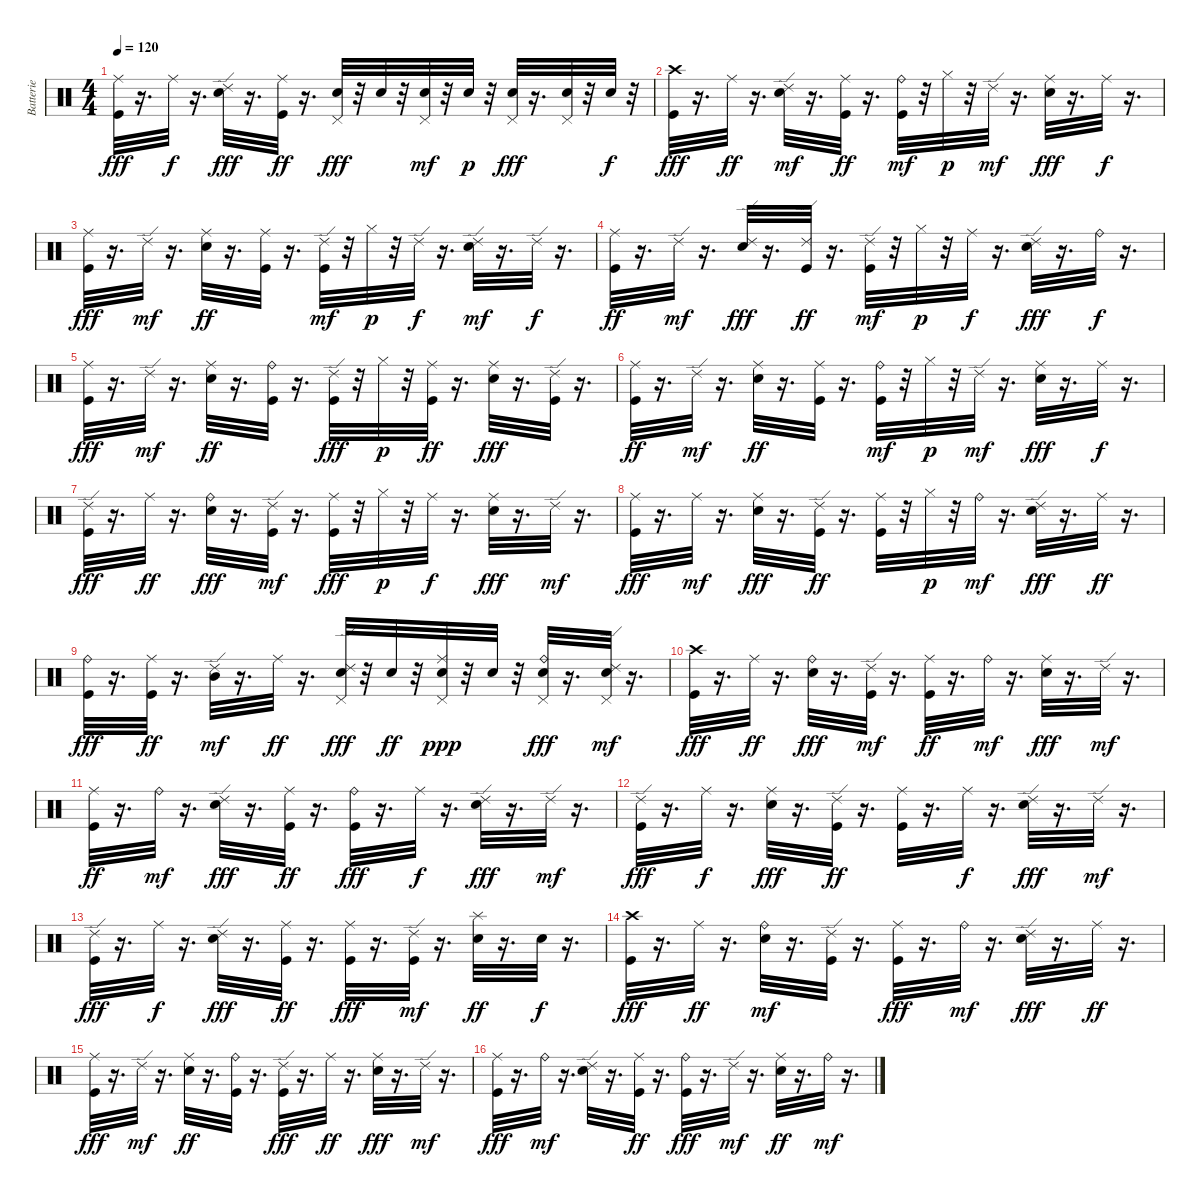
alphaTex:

\track ("Batterie" "Batterie") {instrument percussion}
\staff {score}
\articulation defaults
\ts (4 4)
\tempo 120
\clef neutral
\ks c
("Ride (middle)" "Kick (hit)").32{dy fff} r.16{d} "Ride (middle)".32{dy f} r.16{d} ("Ride (edge) 2" "Electric Snare (hit)").32{dy fff} r.16{d} ("Ride (middle)" "Kick (hit)").32{dy ff} r.16{d} ("Pedal Hi-Hat (hit)" "Electric Snare (hit)").32{dy fff} r.32 "Electric Snare (hit)".32 r.32 ("Electric Snare (hit)" "Pedal Hi-Hat (hit)").32{dy mf} r.32 "Electric Snare (hit)".32{dy p} r.32 ("Pedal Hi-Hat (hit)" "Electric Snare (hit)").32{dy fff} r.16{d} ("Pedal Hi-Hat (hit)" "Electric Snare (hit)").32 r.32 "Electric Snare (hit)".32{dy f} r.32 |
("Crash high (hit)" "Kick (hit)").32{dy fff} r.16{d} "Ride (middle)".32{dy ff} r.16{d} ("Electric Snare (hit)" "Ride (edge) 2").32{dy mf} r.16{d} ("Ride (middle)" "Kick (hit)").32{dy ff} r.16{d} ("Kick (hit)" "Ride (bell)").32{dy mf} r.32 "Hi-Hat (closed)".32{dy p} r.32 "Ride (edge) 2".32{dy mf} r.16{d} ("Ride (middle)" "Electric Snare (hit)").32{dy fff} r.16{d} "Ride (middle)".32{dy f} r.16{d} |
("Ride (middle)" "Kick (hit)").32{dy fff} r.16{d} "Ride (edge) 2".32{dy mf} r.16{d} ("Electric Snare (hit)" "Ride (middle)").32{dy ff} r.16{d} ("Ride (middle)" "Kick (hit)").32 r.16{d} ("Kick (hit)" "Ride (edge) 2").32{dy mf} r.32 "Hi-Hat (closed)".32{dy p} r.32 "Ride (edge) 2".32{dy f} r.16{d} ("Electric Snare (hit)" "Ride (edge) 2").32{dy mf} r.16{d} "Ride (edge) 2".32{dy f} r.16{d} |
("Kick (hit)" "Ride (middle)").32{dy ff} r.16{d} "Ride (edge) 2".32{dy mf} r.16{d} ("Ride (edge) 2" "Electric Snare (hit)").32{dy fff} r.16{d} ("Kick (hit)" "Ride (edge) 2").32{dy ff} r.16{d} ("Kick (hit)" "Ride (edge) 2").32{dy mf} r.32 "Hi-Hat (closed)".32{dy p} r.32 "Ride (middle)".32{dy f} r.16{d} ("Ride (edge) 2" "Electric Snare (hit)").32{dy fff} r.16{d} "Ride (bell)".32{dy f} r.16{d} |
("Ride (middle)" "Kick (hit)").32{dy fff} r.16{d} "Ride (edge) 2".32{dy mf} r.16{d} ("Electric Snare (hit)" "Ride (middle)").32{dy ff} r.16{d} ("Ride (bell)" "Kick (hit)").32 r.16{d} ("Ride (edge) 2" "Kick (hit)").32{dy fff} r.32 "Hi-Hat (closed)".32{dy p} r.32 ("Kick (hit)" "Ride (middle)").32{dy ff} r.16{d} ("Ride (middle)" "Electric Snare (hit)").32{dy fff} r.16{d} ("Ride (edge) 2" "Kick (hit)").32 r.16{d} |
("Kick (hit)" "Ride (middle)").32{dy ff} r.16{d} "Ride (edge) 2".32{dy mf} r.16{d} ("Electric Snare (hit)" "Ride (middle)").32{dy ff} r.16{d} ("Ride (middle)" "Kick (hit)").32 r.16{d} ("Kick (hit)" "Ride (bell)").32{dy mf} r.32 "Hi-Hat (closed)".32{dy p} r.32 "Ride (edge) 2".32{dy mf} r.16{d} ("Ride (middle)" "Electric Snare (hit)").32{dy fff} r.16{d} "Ride (middle)".32{dy f} r.16{d} |
("Ride (edge) 2" "Kick (hit)").32{dy fff} r.16{d} "Ride (middle)".32{dy ff} r.16{d} ("Ride (bell)" "Electric Snare (hit)").32{dy fff} r.16{d} ("Kick (hit)" "Ride (edge) 2").32{dy mf} r.16{d} ("Ride (middle)" "Kick (hit)").32{dy fff} r.32 "Hi-Hat (closed)".32{dy p} r.32 "Ride (middle)".32{dy f} r.16{d} ("Electric Snare (hit)" "Ride (middle)").32{dy fff} r.16{d} "Ride (edge) 2".32{dy mf} r.16{d} |
("Ride (middle)" "Kick (hit)").32{dy fff} r.16{d} "Ride (middle)".32{dy mf} r.16{d} ("Ride (middle)" "Electric Snare (hit)").32{dy fff} r.16{d} ("Ride (edge) 2" "Kick (hit)").32{dy ff} r.16{d} ("Kick (hit)" "Ride (middle)").32 r.32 "Hi-Hat (closed)".32{dy p} r.32 "Ride (bell)".32{dy mf} r.16{d} ("Ride (edge) 2" "Electric Snare (hit)").32{dy fff} r.16{d} "Ride (middle)".32{dy ff} r.16{d} |
("Ride (bell)" "Kick (hit)").32{dy fff} r.16{d} ("Kick (hit)" "Ride (middle)").32{dy ff} r.16{d} ("Mid Tom (hit)" "Ride (edge) 2").32{dy mf} r.16{d} "Ride (middle)".32{dy ff} r.16{d} ("Ride (edge) 2" "Pedal Hi-Hat (hit)" "Electric Snare (hit)").32{dy fff} r.32 "Electric Snare (hit)".32{dy ff} r.32 ("Ride (middle)" "Pedal Hi-Hat (hit)" "Electric Snare (hit)").32{dy ppp} r.32 "Electric Snare (hit)".32 r.32 ("Ride (bell)" "Pedal Hi-Hat (hit)" "Electric Snare (hit)").32{dy fff} r.16{d} ("Electric Snare (hit)" "Ride (edge) 2" "Pedal Hi-Hat (hit)").32{dy mf} r.16{d} |
("Crash high (hit)" "Kick (hit)").32{dy fff} r.16{d} "Ride (middle)".32{dy ff} r.16{d} ("Ride (bell)" "Electric Snare (hit)").32{dy fff} r.16{d} ("Kick (hit)" "Ride (edge) 2").32{dy mf} r.16{d} ("Kick (hit)" "Ride (middle)").32{dy ff} r.16{d} "Ride (bell)".32{dy mf} r.16{d} ("Ride (middle)" "Electric Snare (hit)").32{dy fff} r.16{d} "Ride (edge) 2".32{dy mf} r.16{d} |
("Kick (hit)" "Ride (middle)").32{dy ff} r.16{d} "Ride (bell)".32{dy mf} r.16{d} ("Ride (edge) 2" "Electric Snare (hit)").32{dy fff} r.16{d} ("Ride (middle)" "Kick (hit)").32{dy ff} r.16{d} ("Ride (bell)" "Kick (hit)").32{dy fff} r.16{d} "Ride (middle)".32{dy f} r.16{d} ("Ride (edge) 2" "Electric Snare (hit)").32{dy fff} r.16{d} "Ride (edge) 2".32{dy mf} r.16{d} |
("Ride (edge) 2" "Kick (hit)").32{dy fff} r.16{d} "Ride (middle)".32{dy f} r.16{d} ("Ride (middle)" "Electric Snare (hit)").32{dy fff} r.16{d} ("Ride (edge) 2" "Kick (hit)").32{dy ff} r.16{d} ("Kick (hit)" "Ride (middle)").32 r.16{d} "Ride (middle)".32{dy f} r.16{d} ("Ride (edge) 2" "Electric Snare (hit)").32{dy fff} r.16{d} "Ride (edge) 2".32{dy mf} r.16{d} |
("Kick (hit)" "Ride (edge) 2").32{dy fff} r.16{d} "Ride (middle)".32{dy f} r.16{d} ("Ride (edge) 2" "Electric Snare (hit)").32{dy fff} r.16{d} ("Ride (middle)" "Kick (hit)").32{dy ff} r.16{d} ("Kick (hit)" "Ride (middle)").32{dy fff} r.16{d} ("Kick (hit)" "Ride (edge) 2").32{dy mf} r.16{d} ("Electric Snare (hit)" "Splash (hit)").32{dy ff} r.16{d} "Electric Snare (hit)".32{dy f} r.16{d} |
("Crash high (hit)" "Kick (hit)").32{dy fff} r.16{d} "Ride (middle)".32{dy ff} r.16{d} ("Electric Snare (hit)" "Ride (bell)").32{dy mf} r.16{d} ("Kick (hit)" "Ride (edge) 2").32 r.16{d} ("Ride (middle)" "Kick (hit)").32{dy fff} r.16{d} "Ride (bell)".32{dy mf} r.16{d} ("Ride (edge) 2" "Electric Snare (hit)").32{dy fff} r.16{d} "Ride (middle)".32{dy ff} r.16{d} |
("Kick (hit)" "Ride (middle)").32{dy fff} r.16{d} "Ride (edge) 2".32{dy mf} r.16{d} ("Electric Snare (hit)" "Ride (middle)").32{dy ff} r.16{d} ("Ride (bell)" "Kick (hit)").32 r.16{d} ("Ride (edge) 2" "Kick (hit)").32{dy fff} r.16{d} "Ride (middle)".32{dy ff} r.16{d} ("Ride (middle)" "Electric Snare (hit)").32{dy fff} r.16{d} "Ride (edge) 2".32{dy mf} r.16{d} |
("Ride (middle)" "Kick (hit)").32{dy fff} r.16{d} "Ride (bell)".32{dy mf} r.16{d} ("Electric Snare (hit)" "Ride (edge) 2").32 r.16{d} ("Ride (middle)" "Kick (hit)").32{dy ff} r.16{d} ("Ride (bell)" "Kick (hit)").32{dy fff} r.16{d} "Ride (edge) 2".32{dy mf} r.16{d} ("Electric Snare (hit)" "Ride (middle)").32{dy ff} r.16{d} "Ride (bell)".32{dy mf} r.16{d}
